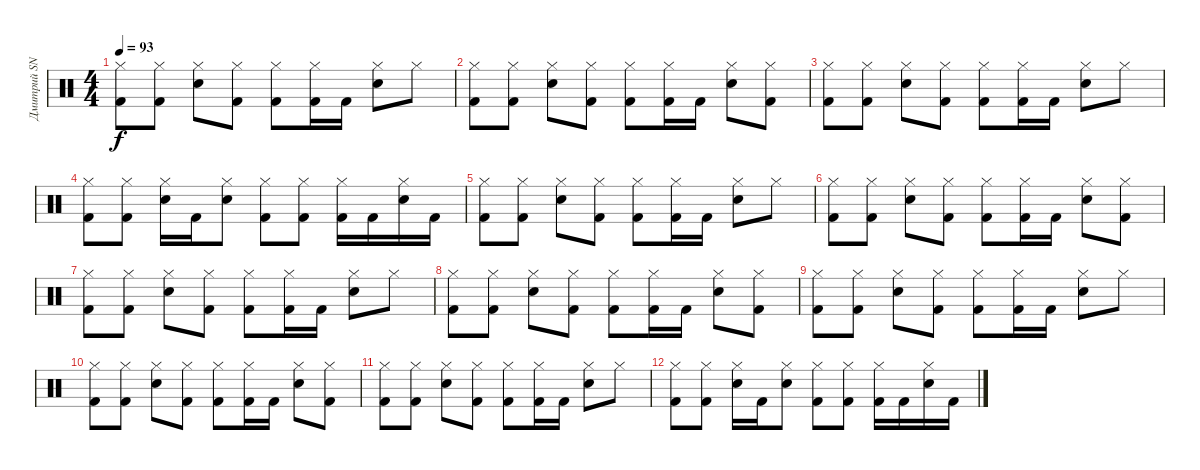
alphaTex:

\track ("Дмитрий SNAKE Хакимов" "Дмитрий SN") {instrument percussion}
\staff {score}
\articulation defaults
\ts (4 4)
\tempo 93
\clef neutral
\ks c
("Hi-Hat (closed)" "Kick (hit) 2").8{dy f} ("Hi-Hat (closed)" "Kick (hit) 2").8 ("Hi-Hat (closed)" "Electric Snare (hit)").8 ("Hi-Hat (closed)" "Kick (hit) 2").8 ("Hi-Hat (closed)" "Kick (hit) 2").8 ("Hi-Hat (closed)" "Kick (hit) 2").16 "Kick (hit) 2".16 ("Hi-Hat (closed)" "Snare (hit) 2").8 "Hi-Hat (closed)".8 |
("Hi-Hat (closed)" "Kick (hit) 2").8 ("Hi-Hat (closed)" "Kick (hit) 2").8 ("Hi-Hat (closed)" "Electric Snare (hit)").8 ("Hi-Hat (closed)" "Kick (hit) 2").8 ("Hi-Hat (closed)" "Kick (hit) 2").8 ("Hi-Hat (closed)" "Kick (hit) 2").16 "Kick (hit) 2".16 ("Hi-Hat (closed)" "Snare (hit) 2").8 ("Hi-Hat (closed)" "Kick (hit) 2").8 |
("Hi-Hat (closed)" "Kick (hit) 2").8 ("Hi-Hat (closed)" "Kick (hit) 2").8 ("Hi-Hat (closed)" "Electric Snare (hit)").8 ("Hi-Hat (closed)" "Kick (hit) 2").8 ("Hi-Hat (closed)" "Kick (hit) 2").8 ("Hi-Hat (closed)" "Kick (hit) 2").16 "Kick (hit) 2".16 ("Hi-Hat (closed)" "Snare (hit) 2").8 "Hi-Hat (closed)".8 |
("Hi-Hat (closed)" "Kick (hit) 2").8 ("Hi-Hat (closed)" "Kick (hit) 2").8 ("Hi-Hat (closed)" "Electric Snare (hit)").16 "Kick (hit) 2".16 ("Hi-Hat (closed)" "Electric Snare (hit)").8 ("Hi-Hat (closed)" "Kick (hit) 2").8 ("Hi-Hat (closed)" "Kick (hit) 2").8 ("Hi-Hat (closed)" "Kick (hit) 2").16 "Kick (hit) 2".16 ("Hi-Hat (closed)" "Snare (hit) 2").16 "Kick (hit) 2".16 |
("Hi-Hat (closed)" "Kick (hit) 2").8 ("Hi-Hat (closed)" "Kick (hit) 2").8 ("Hi-Hat (closed)" "Electric Snare (hit)").8 ("Hi-Hat (closed)" "Kick (hit) 2").8 ("Hi-Hat (closed)" "Kick (hit) 2").8 ("Hi-Hat (closed)" "Kick (hit) 2").16 "Kick (hit) 2".16 ("Hi-Hat (closed)" "Snare (hit) 2").8 "Hi-Hat (closed)".8 |
("Hi-Hat (closed)" "Kick (hit) 2").8 ("Hi-Hat (closed)" "Kick (hit) 2").8 ("Hi-Hat (closed)" "Electric Snare (hit)").8 ("Hi-Hat (closed)" "Kick (hit) 2").8 ("Hi-Hat (closed)" "Kick (hit) 2").8 ("Hi-Hat (closed)" "Kick (hit) 2").16 "Kick (hit) 2".16 ("Hi-Hat (closed)" "Snare (hit) 2").8 ("Hi-Hat (closed)" "Kick (hit) 2").8 |
("Hi-Hat (closed)" "Kick (hit) 2").8 ("Hi-Hat (closed)" "Kick (hit) 2").8 ("Hi-Hat (closed)" "Electric Snare (hit)").8 ("Hi-Hat (closed)" "Kick (hit) 2").8 ("Hi-Hat (closed)" "Kick (hit) 2").8 ("Hi-Hat (closed)" "Kick (hit) 2").16 "Kick (hit) 2".16 ("Hi-Hat (closed)" "Snare (hit) 2").8 "Hi-Hat (closed)".8 |
("Hi-Hat (closed)" "Kick (hit) 2").8 ("Hi-Hat (closed)" "Kick (hit) 2").8 ("Hi-Hat (closed)" "Electric Snare (hit)").8 ("Hi-Hat (closed)" "Kick (hit) 2").8 ("Hi-Hat (closed)" "Kick (hit) 2").8 ("Hi-Hat (closed)" "Kick (hit) 2").16 "Kick (hit) 2".16 ("Hi-Hat (closed)" "Snare (hit) 2").8 ("Hi-Hat (closed)" "Kick (hit) 2").8 |
("Hi-Hat (closed)" "Kick (hit) 2").8 ("Hi-Hat (closed)" "Kick (hit) 2").8 ("Hi-Hat (closed)" "Electric Snare (hit)").8 ("Hi-Hat (closed)" "Kick (hit) 2").8 ("Hi-Hat (closed)" "Kick (hit) 2").8 ("Hi-Hat (closed)" "Kick (hit) 2").16 "Kick (hit) 2".16 ("Hi-Hat (closed)" "Snare (hit) 2").8 "Hi-Hat (closed)".8 |
("Hi-Hat (closed)" "Kick (hit) 2").8 ("Hi-Hat (closed)" "Kick (hit) 2").8 ("Hi-Hat (closed)" "Electric Snare (hit)").8 ("Hi-Hat (closed)" "Kick (hit) 2").8 ("Hi-Hat (closed)" "Kick (hit) 2").8 ("Hi-Hat (closed)" "Kick (hit) 2").16 "Kick (hit) 2".16 ("Hi-Hat (closed)" "Snare (hit) 2").8 ("Hi-Hat (closed)" "Kick (hit) 2").8 |
("Hi-Hat (closed)" "Kick (hit) 2").8 ("Hi-Hat (closed)" "Kick (hit) 2").8 ("Hi-Hat (closed)" "Electric Snare (hit)").8 ("Hi-Hat (closed)" "Kick (hit) 2").8 ("Hi-Hat (closed)" "Kick (hit) 2").8 ("Hi-Hat (closed)" "Kick (hit) 2").16 "Kick (hit) 2".16 ("Hi-Hat (closed)" "Snare (hit) 2").8 "Hi-Hat (closed)".8 |
("Hi-Hat (closed)" "Kick (hit) 2").8 ("Hi-Hat (closed)" "Kick (hit) 2").8 ("Hi-Hat (closed)" "Electric Snare (hit)").16 "Kick (hit) 2".16 ("Hi-Hat (closed)" "Electric Snare (hit)").8 ("Hi-Hat (closed)" "Kick (hit) 2").8 ("Hi-Hat (closed)" "Kick (hit) 2").8 ("Hi-Hat (closed)" "Kick (hit) 2").16 "Kick (hit) 2".16 ("Hi-Hat (closed)" "Snare (hit) 2").16 "Kick (hit) 2".16
